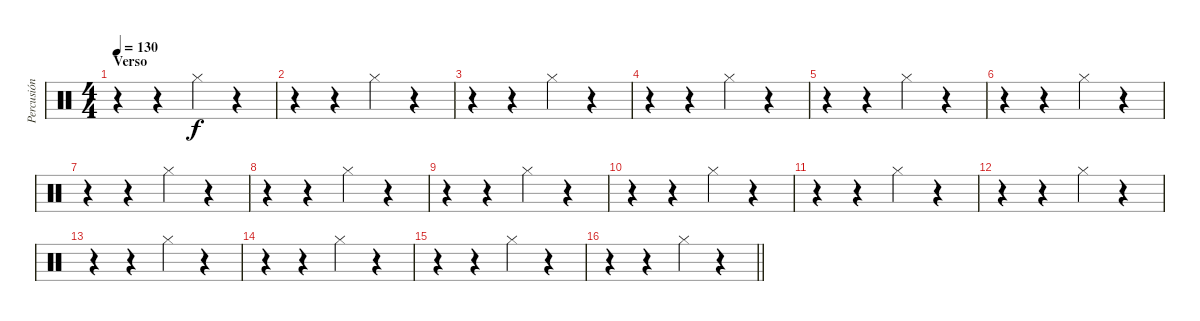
\track ("Percusión" "Percusión") {instrument percussion}
\staff {score}
\articulation defaults
\ts (4 4)
\section ("" "Verso")
\tempo 130
\clef neutral
\ks c
r.4{dy f} r.4 "Hi-Hat (closed)".4 r.4 |
r.4 r.4 "Hi-Hat (closed)".4 r.4 |
r.4 r.4 "Hi-Hat (closed)".4 r.4 |
r.4 r.4 "Hi-Hat (closed)".4 r.4 |
r.4 r.4 "Hi-Hat (closed)".4 r.4 |
r.4 r.4 "Hi-Hat (closed)".4 r.4 |
r.4 r.4 "Hi-Hat (closed)".4 r.4 |
r.4 r.4 "Hi-Hat (closed)".4 r.4 |
r.4 r.4 "Hi-Hat (closed)".4 r.4 |
r.4 r.4 "Hi-Hat (closed)".4 r.4 |
r.4 r.4 "Hi-Hat (closed)".4 r.4 |
r.4 r.4 "Hi-Hat (closed)".4 r.4 |
r.4 r.4 "Hi-Hat (closed)".4 r.4 |
r.4 r.4 "Hi-Hat (closed)".4 r.4 |
r.4 r.4 "Hi-Hat (closed)".4 r.4 |
\barLineRight lightlight
r.4 r.4 "Hi-Hat (closed)".4 r.4
